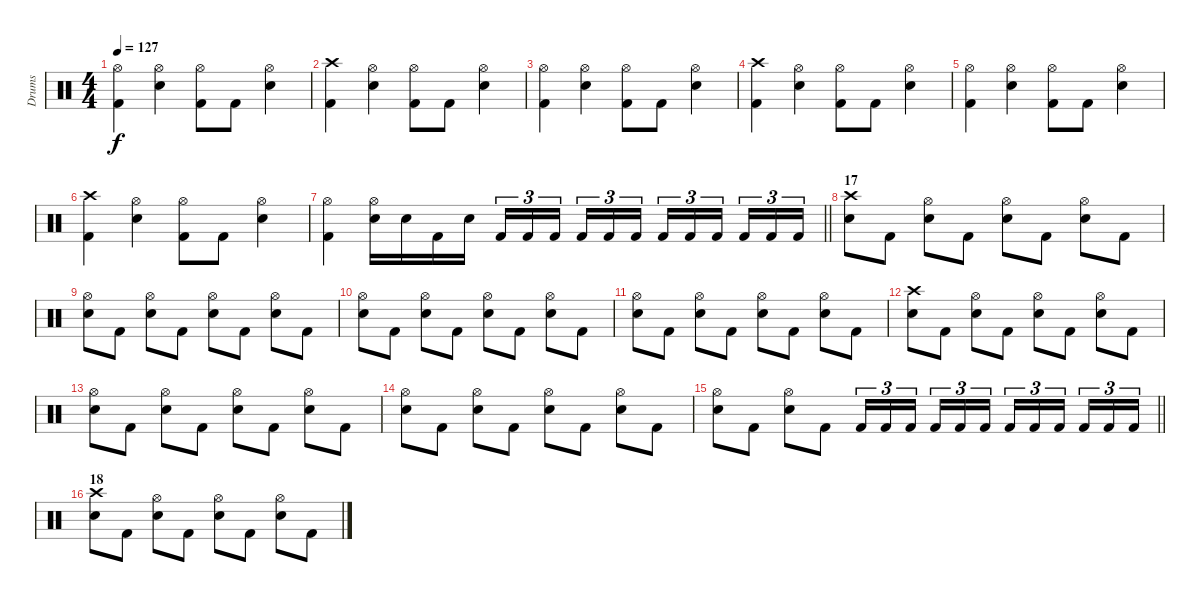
\track ("Drums" "Drums") {instrument percussion}
\staff {score}
\articulation defaults
\ts (4 4)
\tempo 127
\clef neutral
\ks c
("Hi-Hat (open)" "Kick (hit) 2").4{dy f} ("Hi-Hat (open)" "Snare (hit) 2").4 ("Hi-Hat (open)" "Kick (hit) 2").8 "Kick (hit) 2".8 ("Hi-Hat (open)" "Snare (hit) 2").4 |
("Crash high (hit)" "Kick (hit) 2").4 ("Hi-Hat (open)" "Snare (hit) 2").4 ("Hi-Hat (open)" "Kick (hit) 2").8 "Kick (hit) 2".8 ("Hi-Hat (open)" "Snare (hit) 2").4 |
("Hi-Hat (open)" "Kick (hit) 2").4 ("Hi-Hat (open)" "Snare (hit) 2").4 ("Hi-Hat (open)" "Kick (hit) 2").8 "Kick (hit) 2".8 ("Hi-Hat (open)" "Snare (hit) 2").4 |
("Crash high (hit)" "Kick (hit) 2").4 ("Hi-Hat (open)" "Snare (hit) 2").4 ("Hi-Hat (open)" "Kick (hit) 2").8 "Kick (hit) 2".8 ("Hi-Hat (open)" "Snare (hit) 2").4 |
("Hi-Hat (open)" "Kick (hit) 2").4 ("Hi-Hat (open)" "Snare (hit) 2").4 ("Hi-Hat (open)" "Kick (hit) 2").8 "Kick (hit) 2".8 ("Hi-Hat (open)" "Snare (hit) 2").4 |
("Crash high (hit)" "Kick (hit) 2").4 ("Hi-Hat (open)" "Snare (hit) 2").4 ("Hi-Hat (open)" "Kick (hit) 2").8 "Kick (hit) 2".8 ("Hi-Hat (open)" "Snare (hit) 2").4 |
\barLineRight lightlight
("Hi-Hat (open)" "Kick (hit) 2").4 ("Hi-Hat (open)" "Snare (hit) 2").16 "Snare (hit) 2".16 "Kick (hit) 2".16 "Snare (hit) 2".16 "Kick (hit) 2".16{tu (3 2)} "Kick (hit) 2".16{tu (3 2)} "Kick (hit) 2".16{tu (3 2) beam splitsecondary} "Kick (hit) 2".16{tu (3 2)} "Kick (hit) 2".16{tu (3 2)} "Kick (hit) 2".16{tu (3 2)} "Kick (hit) 2".16{tu (3 2)} "Kick (hit) 2".16{tu (3 2)} "Kick (hit) 2".16{tu (3 2) beam splitsecondary} "Kick (hit) 2".16{tu (3 2)} "Kick (hit) 2".16{tu (3 2)} "Kick (hit) 2".16{tu (3 2)} |
\section ("" "17")
("Crash high (hit)" "Snare (hit) 2").8 "Kick (hit) 2".8 ("Hi-Hat (open)" "Snare (hit) 2").8 "Kick (hit) 2".8 ("Hi-Hat (open)" "Snare (hit) 2").8 "Kick (hit) 2".8 ("Hi-Hat (open)" "Snare (hit) 2").8 "Kick (hit) 2".8 |
("Hi-Hat (open)" "Snare (hit) 2").8 "Kick (hit) 2".8 ("Hi-Hat (open)" "Snare (hit) 2").8 "Kick (hit) 2".8 ("Hi-Hat (open)" "Snare (hit) 2").8 "Kick (hit) 2".8 ("Hi-Hat (open)" "Snare (hit) 2").8 "Kick (hit) 2".8 |
("Hi-Hat (open)" "Snare (hit) 2").8 "Kick (hit) 2".8 ("Hi-Hat (open)" "Snare (hit) 2").8 "Kick (hit) 2".8 ("Hi-Hat (open)" "Snare (hit) 2").8 "Kick (hit) 2".8 ("Hi-Hat (open)" "Snare (hit) 2").8 "Kick (hit) 2".8 |
("Hi-Hat (open)" "Snare (hit) 2").8 "Kick (hit) 2".8 ("Hi-Hat (open)" "Snare (hit) 2").8 "Kick (hit) 2".8 ("Hi-Hat (open)" "Snare (hit) 2").8 "Kick (hit) 2".8 ("Hi-Hat (open)" "Snare (hit) 2").8 "Kick (hit) 2".8 |
("Crash high (hit)" "Snare (hit) 2").8 "Kick (hit) 2".8 ("Hi-Hat (open)" "Snare (hit) 2").8 "Kick (hit) 2".8 ("Hi-Hat (open)" "Snare (hit) 2").8 "Kick (hit) 2".8 ("Hi-Hat (open)" "Snare (hit) 2").8 "Kick (hit) 2".8 |
("Hi-Hat (open)" "Snare (hit) 2").8 "Kick (hit) 2".8 ("Hi-Hat (open)" "Snare (hit) 2").8 "Kick (hit) 2".8 ("Hi-Hat (open)" "Snare (hit) 2").8 "Kick (hit) 2".8 ("Hi-Hat (open)" "Snare (hit) 2").8 "Kick (hit) 2".8 |
("Hi-Hat (open)" "Snare (hit) 2").8 "Kick (hit) 2".8 ("Hi-Hat (open)" "Snare (hit) 2").8 "Kick (hit) 2".8 ("Hi-Hat (open)" "Snare (hit) 2").8 "Kick (hit) 2".8 ("Hi-Hat (open)" "Snare (hit) 2").8 "Kick (hit) 2".8 |
\barLineRight lightlight
("Hi-Hat (open)" "Snare (hit) 2").8 "Kick (hit) 2".8 ("Hi-Hat (open)" "Snare (hit) 2").8 "Kick (hit) 2".8 "Kick (hit) 2".16{tu (3 2)} "Kick (hit) 2".16{tu (3 2)} "Kick (hit) 2".16{tu (3 2) beam splitsecondary} "Kick (hit) 2".16{tu (3 2)} "Kick (hit) 2".16{tu (3 2)} "Kick (hit) 2".16{tu (3 2)} "Kick (hit) 2".16{tu (3 2)} "Kick (hit) 2".16{tu (3 2)} "Kick (hit) 2".16{tu (3 2) beam splitsecondary} "Kick (hit) 2".16{tu (3 2)} "Kick (hit) 2".16{tu (3 2)} "Kick (hit) 2".16{tu (3 2)} |
\section ("" "18")
("Crash high (hit)" "Snare (hit) 2").8 "Kick (hit) 2".8 ("Hi-Hat (open)" "Snare (hit) 2").8 "Kick (hit) 2".8 ("Hi-Hat (open)" "Snare (hit) 2").8 "Kick (hit) 2".8 ("Hi-Hat (open)" "Snare (hit) 2").8 "Kick (hit) 2".8
